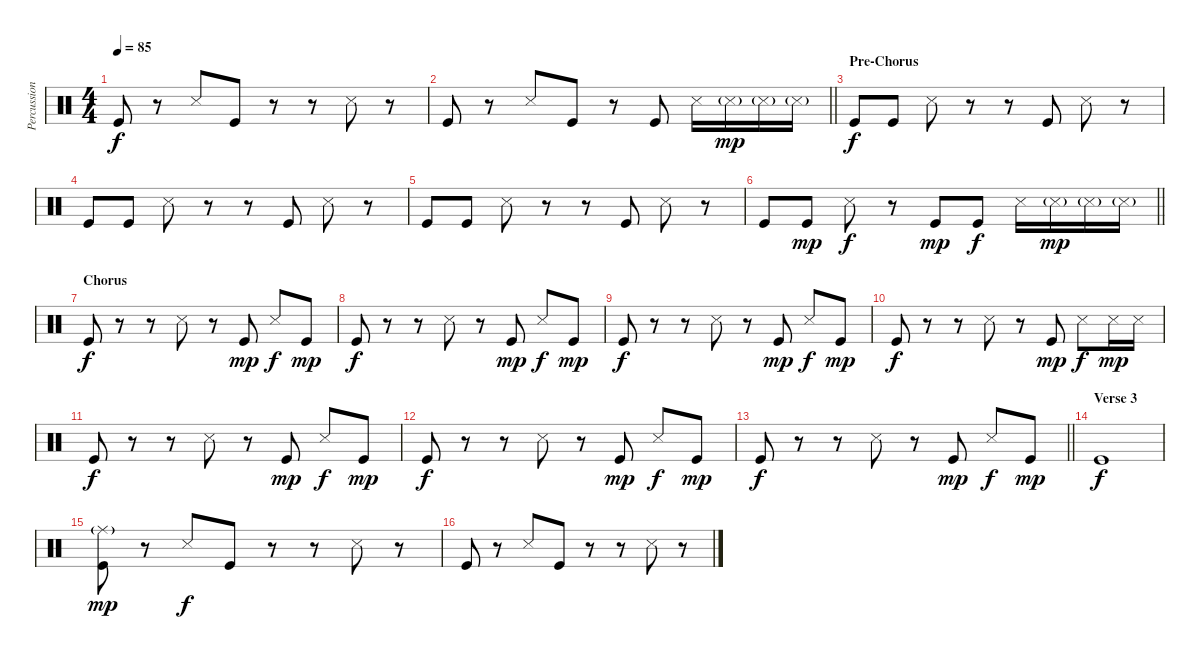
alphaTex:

\track ("Percussion" "Percussion") {instrument percussion}
\staff {score}
\articulation defaults
\ts (4 4)
\tempo 85
\clef neutral
\ks c "Kick (hit)".8{dy f}
r.8 "Snare (side stick) 3".8 "Kick (hit)".8 r.8 r.8 "Snare (side stick) 3".8 r.8 |
\barLineRight lightlight "Kick (hit)".8
r.8 "Snare (side stick) 3".8 "Kick (hit)".8 r.8 "Kick (hit)".8 "Snare (side stick) 3".16 "Snare (side stick) 3"{g}.16{dy mp} "Snare (side stick) 3"{g}.16 "Snare (side stick) 3"{g}.16 |
\section ("" "Pre-Chorus")
"Kick (hit)".8{dy f} "Kick (hit)".8 "Snare (side stick) 3".8 r.8 r.8 "Kick (hit)".8 "Snare (side stick) 3".8 r.8 |
"Kick (hit)".8 "Kick (hit)".8 "Snare (side stick) 3".8 r.8 r.8 "Kick (hit)".8 "Snare (side stick) 3".8 r.8 |
"Kick (hit)".8 "Kick (hit)".8 "Snare (side stick) 3".8 r.8 r.8 "Kick (hit)".8 "Snare (side stick) 3".8 r.8 |
\barLineRight lightlight "Kick (hit)".8 "Kick (hit)".8{dy mp} "Snare (side stick) 3".8{dy f}
r.8 "Kick (hit)".8{dy mp} "Kick (hit)".8{dy f} "Snare (side stick) 3".16 "Snare (side stick) 3"{g}.16{dy mp} "Snare (side stick) 3"{g}.16 "Snare (side stick) 3"{g}.16 |
\section ("" "Chorus")
"Kick (hit)".8{dy f} r.8 r.8 "Snare (side stick) 3".8 r.8 "Kick (hit)".8{dy mp} "Snare (side stick) 3".8{dy f} "Kick (hit)".8{dy mp} |
"Kick (hit)".8{dy f} r.8 r.8 "Snare (side stick) 3".8 r.8 "Kick (hit)".8{dy mp} "Snare (side stick) 3".8{dy f} "Kick (hit)".8{dy mp} |
"Kick (hit)".8{dy f} r.8 r.8 "Snare (side stick) 3".8 r.8 "Kick (hit)".8{dy mp} "Snare (side stick) 3".8{dy f} "Kick (hit)".8{dy mp} |
"Kick (hit)".8{dy f} r.8 r.8 "Snare (side stick) 3".8 r.8 "Kick (hit)".8{dy mp} "Snare (side stick) 3".8{dy f} "Snare (side stick) 3".16{dy mp} "Snare (side stick) 3".16 |
"Kick (hit)".8{dy f} r.8 r.8 "Snare (side stick) 3".8 r.8 "Kick (hit)".8{dy mp} "Snare (side stick) 3".8{dy f} "Kick (hit)".8{dy mp} |
"Kick (hit)".8{dy f} r.8 r.8 "Snare (side stick) 3".8 r.8 "Kick (hit)".8{dy mp} "Snare (side stick) 3".8{dy f} "Kick (hit)".8{dy mp} |
\barLineRight lightlight "Kick (hit)".8{dy f}
r.8 r.8 "Snare (side stick) 3".8 r.8 "Kick (hit)".8{dy mp} "Snare (side stick) 3".8{dy f} "Kick (hit)".8{dy mp} |
\section ("" "Verse 3")
"Kick (hit)".1{dy f} |
("Kick (hit)" "Ride (middle)"{g}).8{dy mp} r.8 "Snare (side stick) 3".8{dy f} "Kick (hit)".8 r.8 r.8 "Snare (side stick) 3".8 r.8 |
"Kick (hit)".8 r.8 "Snare (side stick) 3".8 "Kick (hit)".8 r.8 r.8 "Snare (side stick) 3".8 r.8
